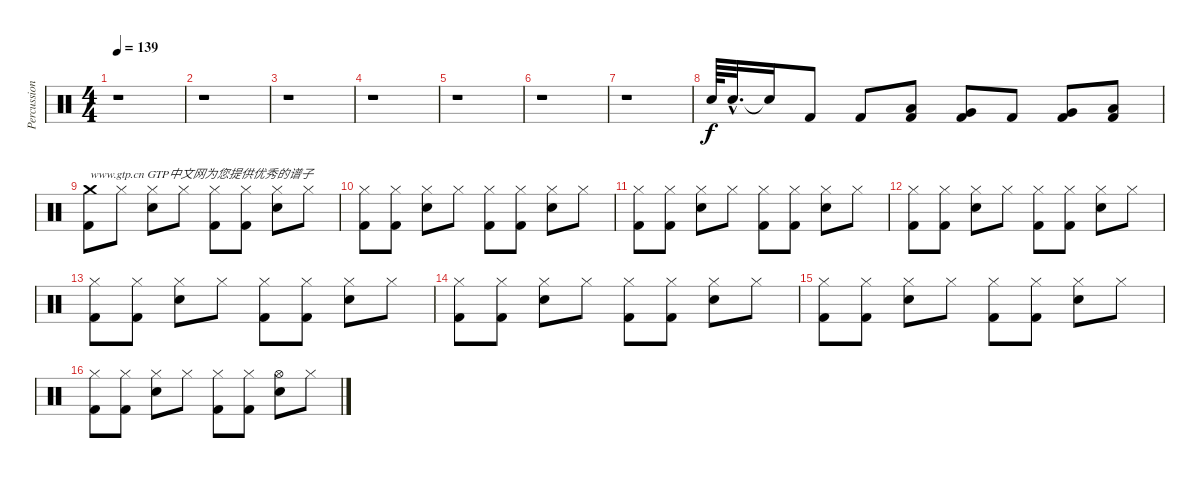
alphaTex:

\track ("Percussion" "Percussion") {instrument percussion}
\staff {score}
\articulation defaults
\ts (4 4)
\tempo 139
\clef neutral
\ks c
r.1{dy f} |
r.1 |
r.1 |
r.1 |
r.1 |
r.1 |
r.1 |
"Metronome (bell)".64 "Metronome (bell)"{hac}.32{d} "Snare (hit)"{t}.16 "Kick (hit) 2".8 "Kick (hit) 2".8 ("Low Tom (hit)" "Kick (hit) 2").8 ("Very Low Tom (hit)" "Kick (hit) 2").8 "Kick (hit) 2".8 ("Very Low Tom (hit)" "Kick (hit) 2").8 ("Low Floor Tom (hit)" "Kick (hit) 2").8 |
("Crash medium (hit)" "Kick (hit) 2").8{txt "www.gtp.cn GTP中文网为您提供优秀的谱子"} "Hi-Hat (closed)".8 ("Hi-Hat (closed)" "Metronome (bell)").8 "Hi-Hat (closed)".8 ("Hi-Hat (closed)" "Kick (hit) 2").8 ("Hi-Hat (closed)" "Kick (hit) 2").8 ("Hi-Hat (closed)" "Metronome (bell)").8 "Hi-Hat (closed)".8 |
("Hi-Hat (closed)" "Kick (hit) 2").8 ("Hi-Hat (closed)" "Kick (hit) 2").8 ("Hi-Hat (closed)" "Metronome (bell)").8 "Hi-Hat (closed)".8 ("Hi-Hat (closed)" "Kick (hit) 2").8 ("Hi-Hat (closed)" "Kick (hit) 2").8 ("Hi-Hat (closed)" "Metronome (bell)").8 "Hi-Hat (closed)".8 |
("Hi-Hat (closed)" "Kick (hit) 2").8 ("Hi-Hat (closed)" "Kick (hit) 2").8 ("Hi-Hat (closed)" "Metronome (bell)").8 "Hi-Hat (closed)".8 ("Hi-Hat (closed)" "Kick (hit) 2").8 ("Hi-Hat (closed)" "Kick (hit) 2").8 ("Hi-Hat (closed)" "Metronome (bell)").8 "Hi-Hat (closed)".8 |
("Hi-Hat (closed)" "Kick (hit) 2").8 ("Hi-Hat (closed)" "Kick (hit) 2").8 ("Hi-Hat (closed)" "Metronome (bell)").8 "Hi-Hat (closed)".8 ("Hi-Hat (closed)" "Kick (hit) 2").8 ("Hi-Hat (closed)" "Kick (hit) 2").8 ("Hi-Hat (closed)" "Metronome (bell)").8 "Hi-Hat (closed)".8 |
("Hi-Hat (closed)" "Kick (hit) 2").8 ("Hi-Hat (closed)" "Kick (hit) 2").8 ("Hi-Hat (closed)" "Metronome (bell)").8 "Hi-Hat (closed)".8 ("Hi-Hat (closed)" "Kick (hit) 2").8 ("Hi-Hat (closed)" "Kick (hit) 2").8 ("Hi-Hat (closed)" "Metronome (bell)").8 "Hi-Hat (closed)".8 |
("Hi-Hat (closed)" "Kick (hit) 2").8 ("Hi-Hat (closed)" "Kick (hit) 2").8 ("Hi-Hat (closed)" "Metronome (bell)").8 "Hi-Hat (closed)".8 ("Hi-Hat (closed)" "Kick (hit) 2").8 ("Hi-Hat (closed)" "Kick (hit) 2").8 ("Hi-Hat (closed)" "Metronome (bell)").8 "Hi-Hat (closed)".8 |
("Hi-Hat (closed)" "Kick (hit) 2").8 ("Hi-Hat (closed)" "Kick (hit) 2").8 ("Hi-Hat (closed)" "Metronome (bell)").8 "Hi-Hat (closed)".8 ("Hi-Hat (closed)" "Kick (hit) 2").8 ("Hi-Hat (closed)" "Kick (hit) 2").8 ("Hi-Hat (closed)" "Metronome (bell)").8 "Hi-Hat (closed)".8 |
("Hi-Hat (closed)" "Kick (hit) 2").8 ("Hi-Hat (closed)" "Kick (hit) 2").8 ("Hi-Hat (closed)" "Metronome (bell)").8 "Hi-Hat (closed)".8 ("Hi-Hat (closed)" "Kick (hit) 2").8 ("Hi-Hat (closed)" "Kick (hit) 2").8 ("Hi-Hat (open)" "Metronome (bell)").8 "Hi-Hat (closed)".8
